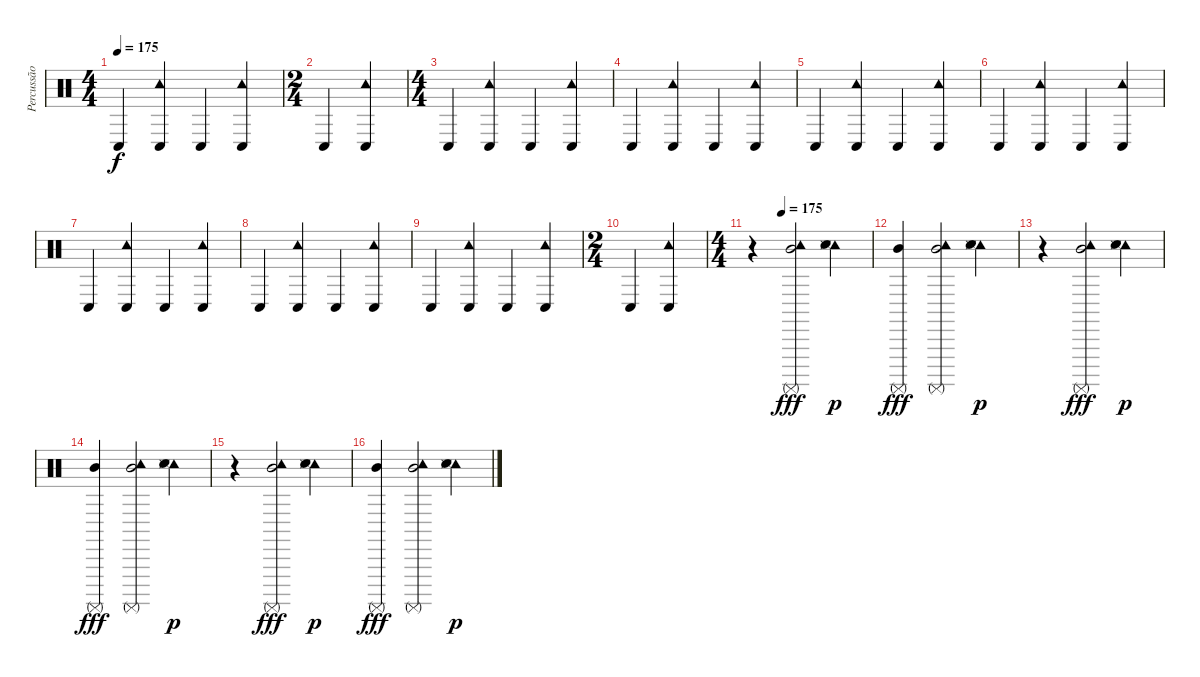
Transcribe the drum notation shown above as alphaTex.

\track ("Percussão" "Percussão") {instrument percussion}
\staff {score}
\articulation defaults
\ts (4 4)
\tempo 175
\clef neutral
\ks c "Conga low (hit)".4{dy f}
("Conga low (hit)" "Tambourine (hit)").4 "Conga low (hit)".4 ("Conga low (hit)" "Tambourine (hit)").4 |
\ts (2 4)
"Conga low (hit)".4 ("Conga low (hit)" "Tambourine (hit)").4 |
\ts (4 4)
"Conga low (hit)".4 ("Conga low (hit)" "Tambourine (hit)").4 "Conga low (hit)".4 ("Conga low (hit)" "Tambourine (hit)").4 |
"Conga low (hit)".4 ("Conga low (hit)" "Tambourine (hit)").4 "Conga low (hit)".4 ("Conga low (hit)" "Tambourine (hit)").4 |
"Conga low (hit)".4 ("Conga low (hit)" "Tambourine (hit)").4 "Conga low (hit)".4 ("Conga low (hit)" "Tambourine (hit)").4 |
"Conga low (hit)".4 ("Conga low (hit)" "Tambourine (hit)").4 "Conga low (hit)".4 ("Conga low (hit)" "Tambourine (hit)").4 |
"Conga low (hit)".4 ("Conga low (hit)" "Tambourine (hit)").4 "Conga low (hit)".4 ("Conga low (hit)" "Tambourine (hit)").4 |
"Conga low (hit)".4 ("Conga low (hit)" "Tambourine (hit)").4 "Conga low (hit)".4 ("Conga low (hit)" "Tambourine (hit)").4 |
"Conga low (hit)".4 ("Conga low (hit)" "Tambourine (hit)").4 "Conga low (hit)".4 ("Conga low (hit)" "Tambourine (hit)").4 |
\ts (2 4)
"Conga low (hit)".4 ("Conga low (hit)" "Tambourine (hit)").4 |
\ts (4 4)
\tempo (175 0.25)
r.4 ("Tambourine (hit)" "Mid Tom (hit)" "Surdo (mute)").2{dy fff} ("Tambourine (hit)" "Hand Clap (hit)" "Snare (side stick) 3").4{dy p} |
("Mid Tom (hit)" "Surdo (mute)").4{dy fff} ("Tambourine (hit)" "Mid Tom (hit)" "Surdo (mute)").2 ("Tambourine (hit)" "Hand Clap (hit)" "Snare (side stick) 3").4{dy p} |
r.4 ("Tambourine (hit)" "Mid Tom (hit)" "Surdo (mute)").2{dy fff} ("Tambourine (hit)" "Hand Clap (hit)" "Snare (side stick) 3").4{dy p} |
("Mid Tom (hit)" "Surdo (mute)").4{dy fff} ("Tambourine (hit)" "Mid Tom (hit)" "Surdo (mute)").2 ("Tambourine (hit)" "Hand Clap (hit)" "Snare (side stick) 3").4{dy p} |
r.4 ("Tambourine (hit)" "Mid Tom (hit)" "Surdo (mute)").2{dy fff} ("Tambourine (hit)" "Hand Clap (hit)" "Snare (side stick) 3").4{dy p} |
("Mid Tom (hit)" "Surdo (mute)").4{dy fff} ("Tambourine (hit)" "Mid Tom (hit)" "Surdo (mute)").2 ("Tambourine (hit)" "Hand Clap (hit)" "Snare (side stick) 3").4{dy p}
